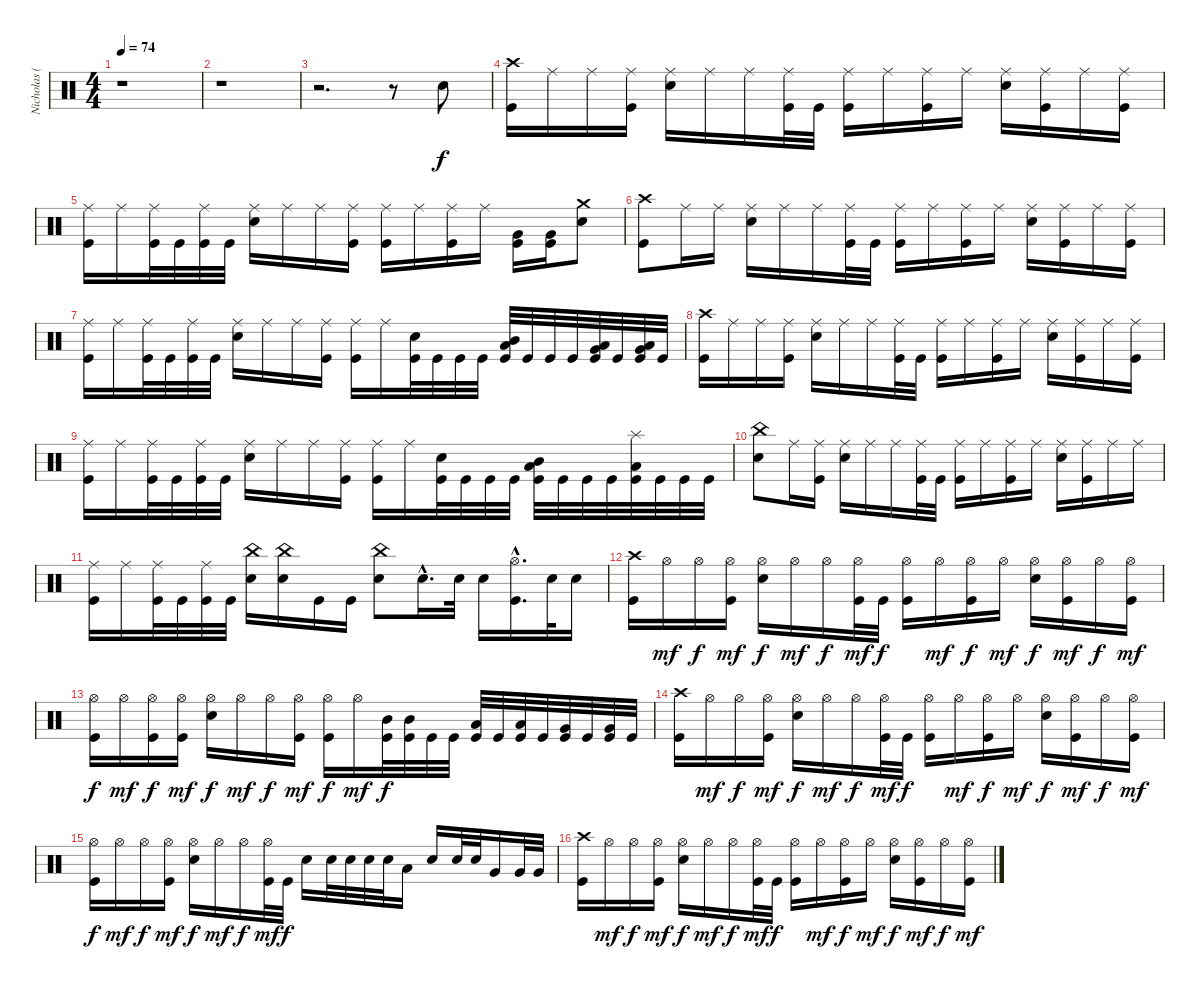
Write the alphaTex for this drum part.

\track ("Nicholas (Drums)" "Nicholas (") {instrument percussion}
\staff {score}
\articulation defaults
\ts (4 4)
\tempo 74
\clef neutral
\ks c
r.1{dy f} |
r.1 |
r.2{d} r.8 "Electric Snare (hit)".8 |
("Crash high (hit)" "Kick (hit)").16 "Ride (middle)".16 "Ride (middle)".16 ("Ride (middle)" "Kick (hit)").16 ("Ride (middle)" "Electric Snare (hit)").16 "Ride (middle)".16 "Ride (middle)".16 ("Ride (middle)" "Kick (hit)").32 "Kick (hit)".32 ("Ride (middle)" "Kick (hit)").16 "Ride (middle)".16 ("Ride (middle)" "Kick (hit)").16 "Ride (middle)".16 ("Ride (middle)" "Electric Snare (hit)").16 ("Ride (middle)" "Kick (hit)").16 "Ride (middle)".16 ("Ride (middle)" "Kick (hit)").16 |
("Ride (middle)" "Kick (hit)").16 "Ride (middle)".16 ("Ride (middle)" "Kick (hit)").32 "Kick (hit)".32 ("Ride (middle)" "Kick (hit)").32 "Kick (hit)".32 ("Ride (middle)" "Electric Snare (hit)").16 "Ride (middle)".16 "Ride (middle)".16 ("Ride (middle)" "Kick (hit)").16 ("Ride (middle)" "Kick (hit)").16 "Ride (middle)".16 ("Ride (middle)" "Kick (hit)").16 "Ride (middle)".16 ("Very Low Tom (hit)" "Kick (hit)").16 ("Very Low Tom (hit)" "Kick (hit)").16 ("Crash medium (hit)" "Electric Snare (hit)").8 |
("Crash high (hit)" "Kick (hit)").8 "Ride (middle)".16 "Ride (middle)".16 ("Ride (middle)" "Electric Snare (hit)").16 "Ride (middle)".16 "Ride (middle)".16 ("Ride (middle)" "Kick (hit)").32 "Kick (hit)".32 ("Ride (middle)" "Kick (hit)").16 "Ride (middle)".16 ("Ride (middle)" "Kick (hit)").16 "Ride (middle)".16 ("Ride (middle)" "Electric Snare (hit)").16 ("Ride (middle)" "Kick (hit)").16 "Ride (middle)".16 ("Ride (middle)" "Kick (hit)").16 |
("Ride (middle)" "Kick (hit)").16 "Ride (middle)".16 ("Ride (middle)" "Kick (hit)").32 "Kick (hit)".32 ("Ride (middle)" "Kick (hit)").32 "Kick (hit)".32 ("Ride (middle)" "Electric Snare (hit)").16 "Ride (middle)".16 "Ride (middle)".16 ("Ride (middle)" "Kick (hit)").16 ("Ride (middle)" "Kick (hit)").16 "Ride (middle)".16 ("Electric Snare (hit)" "Kick (hit)").32 "Kick (hit)".32 "Kick (hit)".32 "Kick (hit)".32 ("Low Tom (hit)" "Mid Tom (hit)" "Kick (hit)").32{bd 60} "Kick (hit)".32 "Kick (hit)".32 "Kick (hit)".32 ("Very Low Tom (hit)" "Low Tom (hit)" "Kick (hit)").32{bd 60} "Kick (hit)".32 ("Very Low Tom (hit)" "Low Tom (hit)" "Kick (hit)").32{bd 60} "Kick (hit)".32 |
("Crash high (hit)" "Kick (hit)").16 "Ride (middle)".16 "Ride (middle)".16 ("Ride (middle)" "Kick (hit)").16 ("Ride (middle)" "Electric Snare (hit)").16 "Ride (middle)".16 "Ride (middle)".16 ("Ride (middle)" "Kick (hit)").32 "Kick (hit)".32 ("Ride (middle)" "Kick (hit)").16 "Ride (middle)".16 ("Ride (middle)" "Kick (hit)").16 "Ride (middle)".16 ("Ride (middle)" "Electric Snare (hit)").16 ("Ride (middle)" "Kick (hit)").16 "Ride (middle)".16 ("Ride (middle)" "Kick (hit)").16 |
("Ride (middle)" "Kick (hit)").16 "Ride (middle)".16 ("Ride (middle)" "Kick (hit)").32 "Kick (hit)".32 ("Ride (middle)" "Kick (hit)").32 "Kick (hit)".32 ("Ride (middle)" "Electric Snare (hit)").16 "Ride (middle)".16 "Ride (middle)".16 ("Ride (middle)" "Kick (hit)").16 ("Ride (middle)" "Kick (hit)").16 "Ride (middle)".16 ("Electric Snare (hit)" "Kick (hit)").32 "Kick (hit)".32 "Kick (hit)".32 "Kick (hit)".32 ("Low Tom (hit)" "Mid Tom (hit)" "Kick (hit)").32{bd 60} "Kick (hit)".32 "Kick (hit)".32 "Kick (hit)".32 ("Splash (hit)" "Low Tom (hit)" "Kick (hit)").32 "Kick (hit)".32 "Kick (hit)".32 "Kick (hit)".32 |
("China (hit)" "Electric Snare (hit)").8 "Ride (middle)".16 ("Ride (middle)" "Kick (hit)").16 ("Ride (middle)" "Electric Snare (hit)").16 "Ride (middle)".16 "Ride (middle)".16 ("Ride (middle)" "Kick (hit)").32 "Kick (hit)".32 ("Ride (middle)" "Kick (hit)").16 "Ride (middle)".16 ("Ride (middle)" "Kick (hit)").16 "Ride (middle)".16 ("Ride (middle)" "Electric Snare (hit)").16 ("Ride (middle)" "Kick (hit)").16 "Ride (middle)".16 "Ride (middle)".16 |
("Ride (middle)" "Kick (hit)").16 "Ride (middle)".16 ("Ride (middle)" "Kick (hit)").32 "Kick (hit)".32 ("Ride (middle)" "Kick (hit)").32 "Kick (hit)".32 ("China (hit)" "Electric Snare (hit)").16 ("China (hit)" "Electric Snare (hit)").16 "Kick (hit)".16 "Kick (hit)".16 ("China (hit)" "Electric Snare (hit)").8 "Electric Snare (hit)"{hac}.16{d} "Electric Snare (hit)".32 "Electric Snare (hit)".16 ("Hi-Hat (open)"{hac} "Kick (hit)"{hac}).16{d} "Electric Snare (hit)".32 "Electric Snare (hit)".16 |
("Crash high (hit)" "Kick (hit)").16 "Hi-Hat (open)".16{dy mf} "Hi-Hat (open)".16{dy f} ("Hi-Hat (open)" "Kick (hit)").16{dy mf} ("Hi-Hat (open)" "Electric Snare (hit)").16{dy f} "Hi-Hat (open)".16{dy mf} "Hi-Hat (open)".16{dy f} ("Hi-Hat (open)" "Kick (hit)").32{dy mf} "Kick (hit)".32{dy f} ("Hi-Hat (open)" "Kick (hit)").16 "Hi-Hat (open)".16{dy mf} ("Hi-Hat (open)" "Kick (hit)").16{dy f} "Hi-Hat (open)".16{dy mf} ("Hi-Hat (open)" "Electric Snare (hit)").16{dy f} ("Hi-Hat (open)" "Kick (hit)").16{dy mf} "Hi-Hat (open)".16{dy f} ("Hi-Hat (open)" "Kick (hit)").16{dy mf} |
("Hi-Hat (open)" "Kick (hit)").16{dy f} "Hi-Hat (open)".16{dy mf} ("Hi-Hat (open)" "Kick (hit)").16{dy f} ("Hi-Hat (open)" "Kick (hit)").16{dy mf} ("Hi-Hat (open)" "Electric Snare (hit)").16{dy f} "Hi-Hat (open)".16{dy mf} "Hi-Hat (open)".16{dy f} ("Hi-Hat (open)" "Kick (hit)").16{dy mf} ("Hi-Hat (open)" "Kick (hit)").16{dy f} "Hi-Hat (open)".16{dy mf} ("Mid Tom (hit)" "Kick (hit)").32{dy f} ("Mid Tom (hit)" "Kick (hit)").32 "Kick (hit)".32 "Kick (hit)".32 ("Low Tom (hit)" "Kick (hit)").32 "Kick (hit)".32 ("Low Tom (hit)" "Kick (hit)").32 "Kick (hit)".32 ("Very Low Tom (hit)" "Kick (hit)").32 "Kick (hit)".32 ("Very Low Tom (hit)" "Kick (hit)").32 "Kick (hit)".32 |
("Crash high (hit)" "Kick (hit)").16 "Hi-Hat (open)".16{dy mf} "Hi-Hat (open)".16{dy f} ("Hi-Hat (open)" "Kick (hit)").16{dy mf} ("Hi-Hat (open)" "Electric Snare (hit)").16{dy f} "Hi-Hat (open)".16{dy mf} "Hi-Hat (open)".16{dy f} ("Hi-Hat (open)" "Kick (hit)").32{dy mf} "Kick (hit)".32{dy f} ("Hi-Hat (open)" "Kick (hit)").16 "Hi-Hat (open)".16{dy mf} ("Hi-Hat (open)" "Kick (hit)").16{dy f} "Hi-Hat (open)".16{dy mf} ("Hi-Hat (open)" "Electric Snare (hit)").16{dy f} ("Hi-Hat (open)" "Kick (hit)").16{dy mf} "Hi-Hat (open)".16{dy f} ("Hi-Hat (open)" "Kick (hit)").16{dy mf} |
("Hi-Hat (open)" "Kick (hit)").16{dy f} "Hi-Hat (open)".16{dy mf} "Hi-Hat (open)".16{dy f} ("Hi-Hat (open)" "Kick (hit)").16{dy mf} ("Hi-Hat (open)" "Electric Snare (hit)").16{dy f} "Hi-Hat (open)".16{dy mf} "Hi-Hat (open)".16{dy f} ("Hi-Hat (open)" "Kick (hit)").32{dy mf} "Kick (hit)".32{dy f} "Electric Snare (hit)".16 "Electric Snare (hit)".32 "Electric Snare (hit)".32 "Electric Snare (hit)".32 "Electric Snare (hit)".32 "Low Tom (hit)".16 "Electric Snare (hit)".16 "Electric Snare (hit)".32 "Electric Snare (hit)".32 "Very Low Tom (hit)".16 "Very Low Tom (hit)".32 "Very Low Tom (hit)".32 |
("Crash high (hit)" "Kick (hit)").16 "Hi-Hat (open)".16{dy mf} "Hi-Hat (open)".16{dy f} ("Hi-Hat (open)" "Kick (hit)").16{dy mf} ("Hi-Hat (open)" "Electric Snare (hit)").16{dy f} "Hi-Hat (open)".16{dy mf} "Hi-Hat (open)".16{dy f} ("Hi-Hat (open)" "Kick (hit)").32{dy mf} "Kick (hit)".32{dy f} ("Hi-Hat (open)" "Kick (hit)").16 "Hi-Hat (open)".16{dy mf} ("Hi-Hat (open)" "Kick (hit)").16{dy f} "Hi-Hat (open)".16{dy mf} ("Hi-Hat (open)" "Electric Snare (hit)").16{dy f} ("Hi-Hat (open)" "Kick (hit)").16{dy mf} "Hi-Hat (open)".16{dy f} ("Hi-Hat (open)" "Kick (hit)").16{dy mf}
